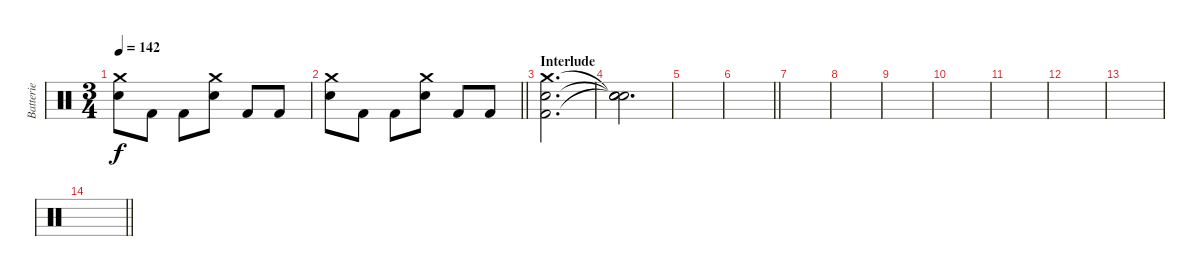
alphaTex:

\track ("Batterie" "Batterie") {instrument percussion}
\staff {score}
\articulation defaults
\ts (3 4)
\tempo 142
\clef neutral
\ks c
("Crash medium (hit)" "Electric Snare (hit)").8{dy f} "Kick (hit) 2".8 "Kick (hit) 2".8 ("Crash medium (hit)" "Electric Snare (hit)").8 "Kick (hit) 2".8 "Kick (hit) 2".8 |
\barLineRight lightlight
("Crash medium (hit)" "Electric Snare (hit)").8 "Kick (hit) 2".8 "Kick (hit) 2".8 ("Crash medium (hit)" "Electric Snare (hit)").8 "Kick (hit) 2".8 "Kick (hit) 2".8 |
\section ("" "Interlude")
("Crash medium (hit)" "Electric Snare (hit)" "Kick (hit) 2").2{d} |
("Snare (hit)"{t} "Snare (hit)"{t} "Snare (hit)"{t}).2{d} |
|
\barLineRight lightlight
|
|
|
|
|
|
|
|
\barLineRight lightlight
